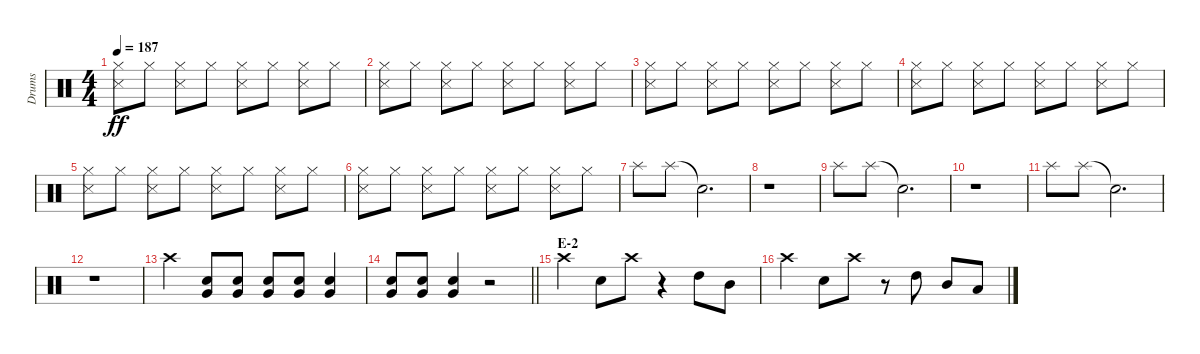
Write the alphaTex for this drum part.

\track ("Drums" "Drums") {instrument percussion}
\staff {score}
\articulation defaults
\ts (4 4)
\tempo 187
\clef neutral
\ks c
("Snare (side stick) 3" "Hi-Hat (closed)").8{dy ff} "Hi-Hat (closed)".8 ("Snare (side stick) 3" "Hi-Hat (closed)").8 "Hi-Hat (closed)".8 ("Snare (side stick) 3" "Hi-Hat (closed)").8 "Hi-Hat (closed)".8 ("Snare (side stick) 3" "Hi-Hat (closed)").8 "Hi-Hat (closed)".8 |
("Hi-Hat (closed)" "Snare (side stick) 3").8 "Hi-Hat (closed)".8 ("Snare (side stick) 3" "Hi-Hat (closed)").8 "Hi-Hat (closed)".8 ("Snare (side stick) 3" "Hi-Hat (closed)").8 "Hi-Hat (closed)".8 ("Snare (side stick) 3" "Hi-Hat (closed)").8 "Hi-Hat (closed)".8 |
("Snare (side stick) 3" "Hi-Hat (closed)").8 "Hi-Hat (closed)".8 ("Snare (side stick) 3" "Hi-Hat (closed)").8 "Hi-Hat (closed)".8 ("Snare (side stick) 3" "Hi-Hat (closed)").8 "Hi-Hat (closed)".8 ("Snare (side stick) 3" "Hi-Hat (closed)").8 "Hi-Hat (closed)".8 |
("Hi-Hat (closed)" "Snare (side stick) 3").8 "Hi-Hat (closed)".8 ("Snare (side stick) 3" "Hi-Hat (closed)").8 "Hi-Hat (closed)".8 ("Snare (side stick) 3" "Hi-Hat (closed)").8 "Hi-Hat (closed)".8 ("Snare (side stick) 3" "Hi-Hat (closed)").8 "Hi-Hat (closed)".8 |
("Snare (side stick) 3" "Hi-Hat (closed)").8 "Hi-Hat (closed)".8 ("Snare (side stick) 3" "Hi-Hat (closed)").8 "Hi-Hat (closed)".8 ("Snare (side stick) 3" "Hi-Hat (closed)").8 "Hi-Hat (closed)".8 ("Snare (side stick) 3" "Hi-Hat (closed)").8 "Hi-Hat (closed)".8 |
("Snare (side stick) 3" "Hi-Hat (closed)").8 "Hi-Hat (closed)".8 ("Snare (side stick) 3" "Hi-Hat (closed)").8 "Hi-Hat (closed)".8 ("Snare (side stick) 3" "Hi-Hat (closed)").8 "Hi-Hat (closed)".8 ("Snare (side stick) 3" "Hi-Hat (closed)").8 "Hi-Hat (closed)".8 |
"Splash (hit)".8 "Splash (hit)".8 "Snare (hit)"{t}.2{d} |
r.1 |
"Splash (hit)".8 "Splash (hit)".8 "Snare (hit)"{t}.2{d} |
r.1 |
"Splash (hit)".8 "Splash (hit)".8 "Snare (hit)"{t}.2{d} |
r.1 |
"Crash high (hit)".4 ("Snare (hit) 2" "Very Low Tom (hit)").8 ("Very Low Tom (hit)" "Snare (hit) 2").8 ("Very Low Tom (hit)" "Snare (hit) 2").8 ("Very Low Tom (hit)" "Snare (hit) 2").8 ("Very Low Tom (hit)" "Snare (hit) 2").4 |
\barLineRight lightlight
("Very Low Tom (hit)" "Snare (hit) 2").8 ("Very Low Tom (hit)" "Snare (hit) 2").8 ("Snare (hit) 2" "Very Low Tom (hit)").4 r.2 |
\section ("" "E-2")
"Crash high (hit)".4 "Snare (hit) 2".8 "Crash high (hit)".8 r.4 "High Tom (hit)".8 "Mid Tom (hit)".8 |
"Crash high (hit)".4 "Snare (hit) 2".8 "Crash high (hit)".8 r.8 "High Tom (hit)".8 "Mid Tom (hit)".8 "Low Tom (hit)".8
